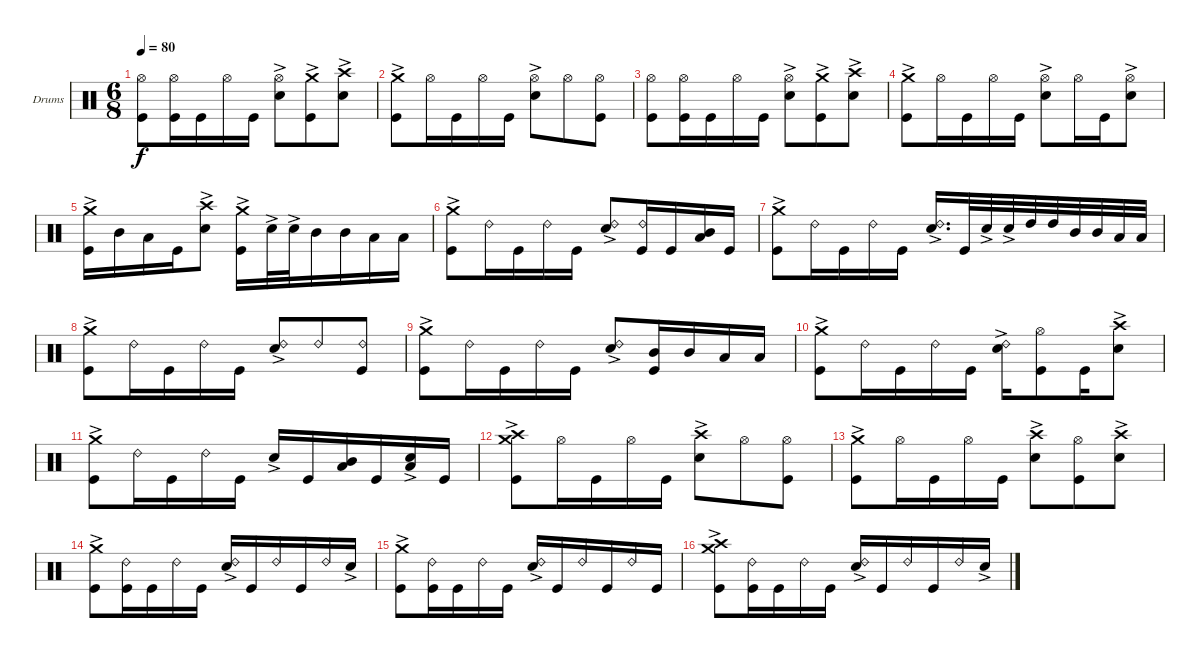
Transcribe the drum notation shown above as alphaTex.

\defaultSystemsLayout 4
\bracketExtendMode groupsimilarinstruments
\firstSystemTrackNameOrientation horizontal
\otherSystemsTrackNameOrientation horizontal
\track ("Drumkit" "Drums") {instrument percussion}
\staff {score}
\articulation defaults
\ts (6 8)
\tempo 80
\clef neutral
\ks c
("Hi-Hat (open)" "Kick (hit)").8{dy f} ("Hi-Hat (open)" "Kick (hit)").16 "Kick (hit)".16 "Hi-Hat (open)".16 "Kick (hit)".16 ("Snare (hit) 2"{ac} "Hi-Hat (open)").8 ("Kick (hit)" "Crash medium (hit)"{ac}).8 ("Snare (hit) 2"{ac} "Crash high (hit)").8 |
("Crash medium (hit)"{ac} "Kick (hit)").8 "Hi-Hat (open)".16 "Kick (hit)".16 "Hi-Hat (open)".16 "Kick (hit)".16 ("Hi-Hat (open)" "Snare (hit) 2"{ac}).8 "Hi-Hat (open)".8 ("Hi-Hat (open)" "Kick (hit)").8 |
("Hi-Hat (open)" "Kick (hit)").8 ("Hi-Hat (open)" "Kick (hit)").16 "Kick (hit)".16 "Hi-Hat (open)".16 "Kick (hit)".16 ("Snare (hit) 2"{ac} "Hi-Hat (open)").8 ("Kick (hit)" "Crash medium (hit)"{ac}).8 ("Snare (hit) 2"{ac} "Crash high (hit)").8 |
\scale
0.349521 ("Crash medium (hit)"{ac} "Kick (hit)").8 "Hi-Hat (open)".16 "Kick (hit)".16 "Hi-Hat (open)".16 "Kick (hit)".16 ("Hi-Hat (open)" "Snare (hit) 2"{ac}).8 "Hi-Hat (open)".16 "Kick (hit)".16 ("Hi-Hat (open)" "Snare (hit) 2"{ac}).8 |
\scale
0.330568 ("Crash medium (hit)"{ac} "Kick (hit)").16 "Mid Tom (hit)".16 "Low Tom (hit)".16 "Kick (hit)".16 ("Crash high (hit)" "Snare (hit) 2"{ac}).8 ("Crash medium (hit)"{ac} "Kick (hit)").16 "Snare (hit) 2"{ac}.32 "Snare (hit) 2"{ac}.32 "Mid Tom (hit)".16 "Mid Tom (hit)".16 "Low Tom (hit)".16 "Low Tom (hit)".16 |
\scale
0.31993 ("Crash medium (hit)"{ac} "Kick (hit)").8 "Ride (bell) 2".16 "Kick (hit)".16 "Ride (bell) 2".16 "Kick (hit)".16 ("Ride (bell) 2" "Snare (hit) 2"{ac}).8 ("Ride (bell) 2" "Kick (hit)").16 "Kick (hit)".16 ("Mid Tom (hit)" "Low Tom (hit)").16 "Kick (hit)".16 |
("Crash medium (hit)"{ac} "Kick (hit)").8 "Ride (bell) 2".16 "Kick (hit)".16 "Ride (bell) 2".16 "Kick (hit)".16 ("Ride (bell) 2" "Snare (hit) 2"{ac}).16{d} "Kick (hit)".32 "Snare (hit) 2"{ac}.32 "Snare (hit) 2"{ac}.32 "High Tom (hit)".32 "High Tom (hit)".32 "Mid Tom (hit)".32 "Mid Tom (hit)".32 "Low Tom (hit)".32 "Low Tom (hit)".32 |
("Crash medium (hit)"{ac} "Kick (hit)").8 "Ride (bell) 2".16 "Kick (hit)".16 "Ride (bell) 2".16 "Kick (hit)".16 ("Ride (bell) 2" "Snare (hit) 2"{ac}).8 "Ride (bell) 2".8 ("Ride (bell) 2" "Kick (hit)").8 |
("Crash medium (hit)"{ac} "Kick (hit)").8 "Ride (bell) 2".16 "Kick (hit)".16 "Ride (bell) 2".16 "Kick (hit)".16 ("Ride (bell) 2" "Snare (hit) 2"{ac}).8 ("Mid Tom (hit)" "Kick (hit)").16 "Mid Tom (hit)".16 "Low Tom (hit)".16 "Low Tom (hit)".16 |
("Crash medium (hit)"{ac} "Kick (hit)").8 "Ride (bell) 2".16 "Kick (hit)".16 "Ride (bell) 2".16 "Kick (hit)".16 ("Ride (bell) 2" "Snare (hit) 2"{ac}).16 ("Hi-Hat (open)" "Kick (hit)").8 "Kick (hit)".16 ("Crash high (hit)" "Snare (hit) 2"{ac}).8 |
("Crash medium (hit)"{ac} "Kick (hit)").8 "Ride (bell) 2".16 "Kick (hit)".16 "Ride (bell) 2".16 "Kick (hit)".16 "Snare (hit) 2"{ac}.16 "Kick (hit)".16 ("Mid Tom (hit)" "Low Tom (hit)").16 "Kick (hit)".16 ("Snare (hit) 2"{ac} "Low Tom (hit)").16 "Kick (hit)".16 |
("Crash medium (hit)"{ac} "Crash high (hit)" "Kick (hit)").8 "Hi-Hat (open)".16 "Kick (hit)".16 "Hi-Hat (open)".16 "Kick (hit)".16 ("Crash high (hit)" "Snare (hit) 2"{ac}).8 "Hi-Hat (open)".8 ("Hi-Hat (open)" "Kick (hit)").8 |
("Crash medium (hit)"{ac} "Kick (hit)").8 "Hi-Hat (open)".16 "Kick (hit)".16 "Hi-Hat (open)".16 "Kick (hit)".16 ("Crash high (hit)" "Snare (hit) 2"{ac}).8 ("Hi-Hat (open)" "Kick (hit)").8 ("Snare (hit) 2"{ac} "Crash high (hit)").8 |
("Crash medium (hit)"{ac} "Kick (hit)").8 ("Ride (bell) 2" "Kick (hit)").16 "Kick (hit)".16 "Ride (bell) 2".16 "Kick (hit)".16 ("Ride (bell) 2" "Snare (hit) 2"{ac}).16 "Kick (hit)".16 "Ride (bell) 2".16 "Kick (hit)".16 "Ride (bell) 2".16 "Snare (hit) 2"{ac}.16 |
("Crash medium (hit)"{ac} "Kick (hit)").8 ("Ride (bell) 2" "Kick (hit)").16 "Kick (hit)".16 "Ride (bell) 2".16 "Kick (hit)".16 ("Ride (bell) 2" "Snare (hit) 2"{ac}).16 "Kick (hit)".16 "Ride (bell) 2".16 "Kick (hit)".16 "Ride (bell) 2".16 "Kick (hit)".16 |
("Crash medium (hit)"{ac} "Crash high (hit)" "Kick (hit)").8 ("Ride (bell) 2" "Kick (hit)").16 "Kick (hit)".16 "Ride (bell) 2".16 "Kick (hit)".16 ("Ride (bell) 2" "Snare (hit) 2"{ac}).16 "Kick (hit)".16 "Ride (bell) 2".16 "Kick (hit)".16 "Ride (bell) 2".16 "Snare (hit) 2"{ac}.16
